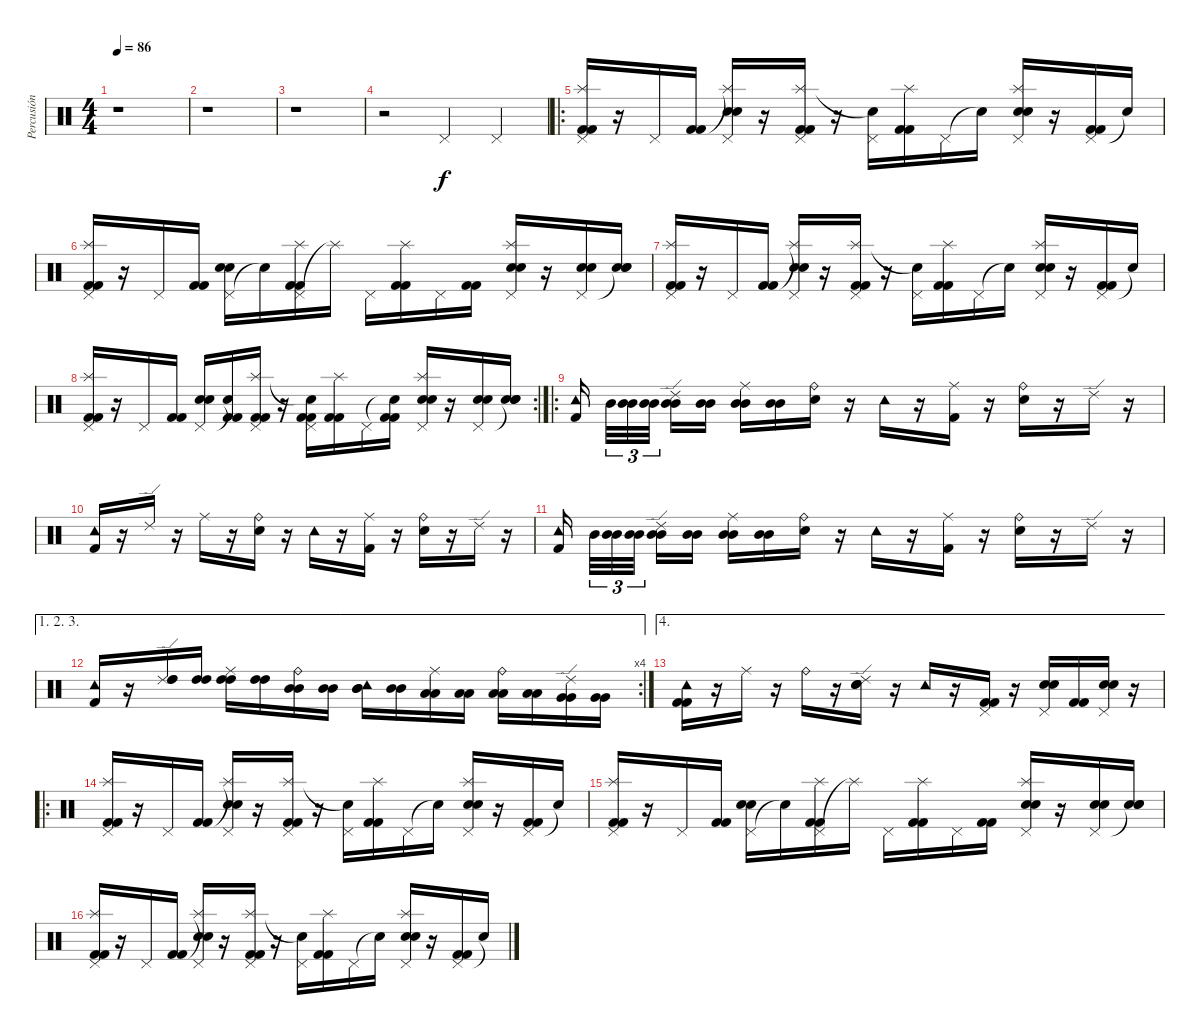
\track ("Percusión" "Percusión") {instrument percussion}
\staff {score}
\articulation defaults
\ts (4 4)
\tempo 86
\clef neutral
\ks c
r.1{dy f} |
r.1 |
r.1 |
r.2 "Pedal Hi-Hat (hit)".4 "Pedal Hi-Hat (hit)".4 |
\ro
("Pedal Hi-Hat (hit)" "Splash (hit)" "Kick (hit) 2" "Kick (hit) 2").16 r.16 "Pedal Hi-Hat (hit)".16 ("Kick (hit) 2" "Kick (hit) 2").16 ("Pedal Hi-Hat (hit)" "Splash (hit)"{t} "Electric Snare (hit)" "Electric Snare (hit)").16 r.16 ("Pedal Hi-Hat (hit)" "Splash (hit)" "Kick (hit) 2" "Kick (hit) 2").16 r.16 ("Pedal Hi-Hat (hit)" "Snare (hit)"{t}).16 ("Splash (hit)" "Kick (hit) 2" "Kick (hit) 2").16 "Pedal Hi-Hat (hit)".16 "Snare (hit)"{t}.16 ("Pedal Hi-Hat (hit)" "Splash (hit)" "Electric Snare (hit)" "Electric Snare (hit)").16 r.16 ("Pedal Hi-Hat (hit)" "Kick (hit) 2" "Kick (hit) 2").16 "Snare (hit)"{t}.16 |
("Pedal Hi-Hat (hit)" "Splash (hit)" "Kick (hit) 2" "Kick (hit) 2").16 r.16 "Pedal Hi-Hat (hit)".16 ("Kick (hit) 2" "Kick (hit) 2").16 ("Pedal Hi-Hat (hit)" "Electric Snare (hit)" "Electric Snare (hit)").16 "Snare (hit)"{t}.16 ("Pedal Hi-Hat (hit)" "Splash (hit)" "Kick (hit) 2" "Kick (hit) 2").16 "Splash (hit)"{t}.16 "Pedal Hi-Hat (hit)".16 ("Splash (hit)" "Kick (hit) 2" "Kick (hit) 2").16 "Pedal Hi-Hat (hit)".16 ("Kick (hit) 2" "Kick (hit) 2").16 ("Pedal Hi-Hat (hit)" "Splash (hit)" "Electric Snare (hit)" "Electric Snare (hit)").16 r.16 ("Pedal Hi-Hat (hit)" "Electric Snare (hit)" "Electric Snare (hit)").16 ("Snare (hit)"{t} "Electric Snare (hit)" "Electric Snare (hit)").16 |
("Pedal Hi-Hat (hit)" "Splash (hit)" "Kick (hit) 2" "Kick (hit) 2").16 r.16 "Pedal Hi-Hat (hit)".16 ("Kick (hit) 2" "Kick (hit) 2").16 ("Pedal Hi-Hat (hit)" "Splash (hit)"{t} "Electric Snare (hit)" "Electric Snare (hit)").16 r.16 ("Pedal Hi-Hat (hit)" "Splash (hit)" "Kick (hit) 2" "Kick (hit) 2").16 r.16 ("Pedal Hi-Hat (hit)" "Snare (hit)"{t}).16 ("Splash (hit)" "Kick (hit) 2" "Kick (hit) 2").16 "Pedal Hi-Hat (hit)".16 "Snare (hit)"{t}.16 ("Pedal Hi-Hat (hit)" "Splash (hit)" "Electric Snare (hit)" "Electric Snare (hit)").16 r.16 ("Pedal Hi-Hat (hit)" "Kick (hit) 2" "Kick (hit) 2").16 "Snare (hit)"{t}.16 |
\rc 2
("Pedal Hi-Hat (hit)" "Splash (hit)" "Kick (hit) 2" "Kick (hit) 2").16 r.16 "Pedal Hi-Hat (hit)".16 ("Kick (hit) 2" "Kick (hit) 2").16 ("Pedal Hi-Hat (hit)" "Electric Snare (hit)" "Electric Snare (hit)").16 ("Snare (hit)"{t} "Kick (hit) 2" "Kick (hit) 2").16 ("Pedal Hi-Hat (hit)" "Splash (hit)" "Kick (hit) 2" "Kick (hit) 2").16 r.16 ("Pedal Hi-Hat (hit)" "Snare (hit)"{t} "Kick (hit) 2" "Kick (hit) 2").16 ("Splash (hit)" "Kick (hit) 2" "Kick (hit) 2").16 "Pedal Hi-Hat (hit)".16 ("Snare (hit)"{t} "Kick (hit) 2" "Kick (hit) 2").16 ("Pedal Hi-Hat (hit)" "Splash (hit)" "Electric Snare (hit)" "Electric Snare (hit)").16 r.16 ("Pedal Hi-Hat (hit)" "Electric Snare (hit)" "Electric Snare (hit)").16 ("Snare (hit)"{t} "Electric Snare (hit)" "Electric Snare (hit)").16 |
\ro
("Tambourine (hit)" "Kick (hit) 2").16 "Mid Tom (hit)".32{tu (3 2)} ("Mid Tom (hit)" "Mid Tom (hit)").32{tu (3 2)} ("Mid Tom (hit)" "Mid Tom (hit)").32{tu (3 2)} ("Ride (edge) 2" "Mid Tom (hit)" "Mid Tom (hit)").16 ("Mid Tom (hit)" "Mid Tom (hit)").16 ("Ride (middle)" "Mid Tom (hit)" "Mid Tom (hit)").16 ("Mid Tom (hit)" "Mid Tom (hit)").16 ("Ride (bell)" "Electric Snare (hit)").16 r.16 "Tambourine (hit)".16 r.16 ("Ride (middle)" "Kick (hit) 2").16 r.16 ("Ride (bell)" "Electric Snare (hit)").16 r.16 "Ride (edge) 2".16 r.16 |
("Tambourine (hit)" "Kick (hit) 2").16 r.16 "Ride (edge) 2".16 r.16 "Ride (middle)".16 r.16 ("Ride (bell)" "Electric Snare (hit)").16 r.16 "Tambourine (hit)".16 r.16 ("Ride (middle)" "Kick (hit) 2").16 r.16 ("Ride (bell)" "Electric Snare (hit)").16 r.16 "Ride (edge) 2".16 r.16 |
("Tambourine (hit)" "Kick (hit) 2").16 "Mid Tom (hit)".32{tu (3 2)} ("Mid Tom (hit)" "Mid Tom (hit)").32{tu (3 2)} ("Mid Tom (hit)" "Mid Tom (hit)").32{tu (3 2)} ("Ride (edge) 2" "Mid Tom (hit)" "Mid Tom (hit)").16 ("Mid Tom (hit)" "Mid Tom (hit)").16 ("Ride (middle)" "Mid Tom (hit)" "Mid Tom (hit)").16 ("Mid Tom (hit)" "Mid Tom (hit)").16 ("Ride (bell)" "Electric Snare (hit)").16 r.16 "Tambourine (hit)".16 r.16 ("Ride (middle)" "Kick (hit) 2").16 r.16 ("Ride (bell)" "Electric Snare (hit)").16 r.16 "Ride (edge) 2".16 r.16 |
\ae (1 2 3)
\rc 4
("Tambourine (hit)" "Kick (hit) 2").16 r.16 ("Ride (edge) 2" "High Tom (hit)" "High Tom (hit)").16 ("High Tom (hit)" "High Tom (hit)").16 ("Ride (middle)" "High Tom (hit)" "High Tom (hit)").16 ("High Tom (hit)" "High Tom (hit)").16 ("Ride (bell)" "Mid Tom (hit)" "Mid Tom (hit)").16 ("Mid Tom (hit)" "Mid Tom (hit)").16 ("Tambourine (hit)" "Mid Tom (hit)" "Mid Tom (hit)").16 ("Mid Tom (hit)" "Mid Tom (hit)").16 ("Ride (middle)" "Low Tom (hit)" "Low Tom (hit)").16 ("Low Tom (hit)" "Low Tom (hit)").16 ("Ride (bell)" "Low Tom (hit)" "Low Tom (hit)").16 ("Low Tom (hit)" "Low Tom (hit)").16 ("Ride (edge) 2" "Very Low Tom (hit)" "Very Low Tom (hit)").16 ("Very Low Tom (hit)" "Very Low Tom (hit)").16 |
\ae 4
("Tambourine (hit)" "Kick (hit) 2" "Kick (hit) 2").16 r.16 "Ride (middle)".16 r.16 "Ride (bell)".16 r.16 ("Ride (edge) 2" "Electric Snare (hit)" "Electric Snare (hit)").16 r.16 "Tambourine (hit)".16 r.16 ("Pedal Hi-Hat (hit)" "Kick (hit) 2" "Kick (hit) 2").16 r.16 ("Pedal Hi-Hat (hit)" "Electric Snare (hit)" "Electric Snare (hit)").16 ("Kick (hit) 2" "Kick (hit) 2").16 ("Pedal Hi-Hat (hit)" "Electric Snare (hit)" "Electric Snare (hit)").16 r.16 |
\ro
("Pedal Hi-Hat (hit)" "Splash (hit)" "Kick (hit) 2" "Kick (hit) 2").16 r.16 "Pedal Hi-Hat (hit)".16 ("Kick (hit) 2" "Kick (hit) 2").16 ("Pedal Hi-Hat (hit)" "Splash (hit)"{t} "Electric Snare (hit)" "Electric Snare (hit)").16 r.16 ("Pedal Hi-Hat (hit)" "Splash (hit)" "Kick (hit) 2" "Kick (hit) 2").16 r.16 ("Pedal Hi-Hat (hit)" "Snare (hit)"{t}).16 ("Splash (hit)" "Kick (hit) 2" "Kick (hit) 2").16 "Pedal Hi-Hat (hit)".16 "Snare (hit)"{t}.16 ("Pedal Hi-Hat (hit)" "Splash (hit)" "Electric Snare (hit)" "Electric Snare (hit)").16 r.16 ("Pedal Hi-Hat (hit)" "Kick (hit) 2" "Kick (hit) 2").16 "Snare (hit)"{t}.16 |
("Pedal Hi-Hat (hit)" "Splash (hit)" "Kick (hit) 2" "Kick (hit) 2").16 r.16 "Pedal Hi-Hat (hit)".16 ("Kick (hit) 2" "Kick (hit) 2").16 ("Pedal Hi-Hat (hit)" "Electric Snare (hit)" "Electric Snare (hit)").16 "Snare (hit)"{t}.16 ("Pedal Hi-Hat (hit)" "Splash (hit)" "Kick (hit) 2" "Kick (hit) 2").16 "Splash (hit)"{t}.16 "Pedal Hi-Hat (hit)".16 ("Splash (hit)" "Kick (hit) 2" "Kick (hit) 2").16 "Pedal Hi-Hat (hit)".16 ("Kick (hit) 2" "Kick (hit) 2").16 ("Pedal Hi-Hat (hit)" "Splash (hit)" "Electric Snare (hit)" "Electric Snare (hit)").16 r.16 ("Pedal Hi-Hat (hit)" "Electric Snare (hit)" "Electric Snare (hit)").16 ("Snare (hit)"{t} "Electric Snare (hit)" "Electric Snare (hit)").16 |
("Pedal Hi-Hat (hit)" "Splash (hit)" "Kick (hit) 2" "Kick (hit) 2").16 r.16 "Pedal Hi-Hat (hit)".16 ("Kick (hit) 2" "Kick (hit) 2").16 ("Pedal Hi-Hat (hit)" "Splash (hit)"{t} "Electric Snare (hit)" "Electric Snare (hit)").16 r.16 ("Pedal Hi-Hat (hit)" "Splash (hit)" "Kick (hit) 2" "Kick (hit) 2").16 r.16 ("Pedal Hi-Hat (hit)" "Snare (hit)"{t}).16 ("Splash (hit)" "Kick (hit) 2" "Kick (hit) 2").16 "Pedal Hi-Hat (hit)".16 "Snare (hit)"{t}.16 ("Pedal Hi-Hat (hit)" "Splash (hit)" "Electric Snare (hit)" "Electric Snare (hit)").16 r.16 ("Pedal Hi-Hat (hit)" "Kick (hit) 2" "Kick (hit) 2").16 "Snare (hit)"{t}.16
